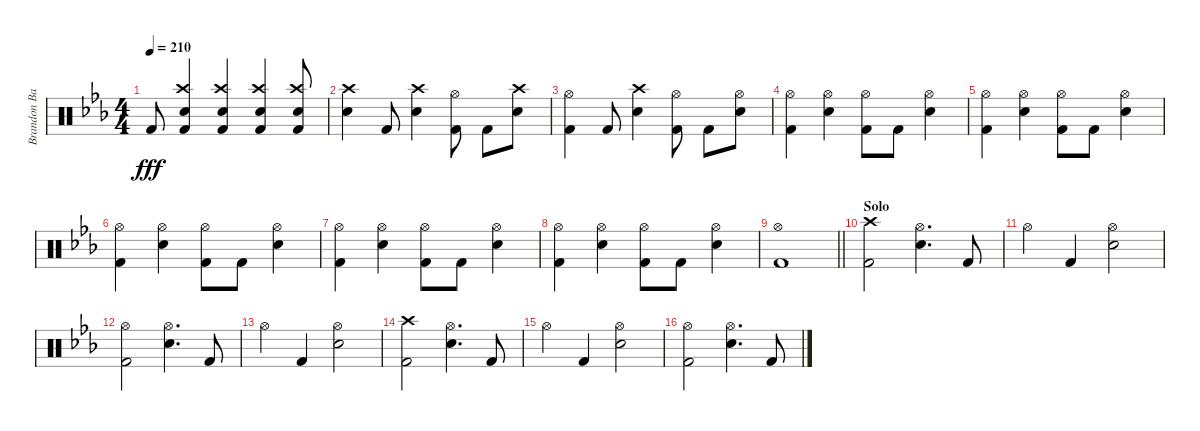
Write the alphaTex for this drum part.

\track ("Brandon Barnes" "Brandon Ba") {instrument percussion}
\staff {score}
\articulation defaults
\ts (4 4)
\tempo 210
\clef neutral
\ks eb "Kick (hit) 2".8{dy fff}
("Crash high (hit)" "Kick (hit) 2" "Snare (hit) 2").4 ("Crash high (hit)" "Kick (hit) 2" "Snare (hit) 2").4 ("Crash high (hit)" "Kick (hit) 2" "Snare (hit) 2").4 ("Crash high (hit)" "Kick (hit) 2" "Snare (hit) 2").8 |
("Crash high (hit)" "Snare (hit) 2").4 "Kick (hit) 2".8 ("Crash high (hit)" "Snare (hit) 2").4 ("Hi-Hat (open)" "Kick (hit) 2").8 "Kick (hit) 2".8 ("Crash high (hit)" "Snare (hit) 2").8 |
("Hi-Hat (open)" "Kick (hit) 2").4 "Kick (hit) 2".8 ("Crash high (hit)" "Snare (hit) 2").4 ("Hi-Hat (open)" "Kick (hit) 2").8 "Kick (hit) 2".8 ("Hi-Hat (open)" "Snare (hit) 2").8 |
("Hi-Hat (open)" "Kick (hit) 2").4 ("Hi-Hat (open)" "Snare (hit) 2").4 ("Hi-Hat (open)" "Kick (hit) 2").8 "Kick (hit) 2".8 ("Hi-Hat (open)" "Snare (hit) 2").4 |
("Hi-Hat (open)" "Kick (hit) 2").4 ("Hi-Hat (open)" "Snare (hit) 2").4 ("Hi-Hat (open)" "Kick (hit) 2").8 "Kick (hit) 2".8 ("Hi-Hat (open)" "Snare (hit) 2").4 |
("Hi-Hat (open)" "Kick (hit) 2").4 ("Hi-Hat (open)" "Snare (hit) 2").4 ("Hi-Hat (open)" "Kick (hit) 2").8 "Kick (hit) 2".8 ("Hi-Hat (open)" "Snare (hit) 2").4 |
("Hi-Hat (open)" "Kick (hit) 2").4 ("Hi-Hat (open)" "Snare (hit) 2").4 ("Hi-Hat (open)" "Kick (hit) 2").8 "Kick (hit) 2".8 ("Hi-Hat (open)" "Snare (hit) 2").4 |
("Hi-Hat (open)" "Kick (hit) 2").4 ("Hi-Hat (open)" "Snare (hit) 2").4 ("Hi-Hat (open)" "Kick (hit) 2").8 "Kick (hit) 2".8 ("Hi-Hat (open)" "Snare (hit) 2").4 |
\barLineRight lightlight
("Hi-Hat (open)" "Kick (hit) 2").1 |
\section ("" "Solo")
("Crash high (hit)" "Kick (hit) 2").2 ("Hi-Hat (open)" "Snare (hit) 2").4{d} "Kick (hit) 2".8 |
"Hi-Hat (open)".4 "Kick (hit) 2".4 ("Hi-Hat (open)" "Snare (hit) 2").2 |
("Hi-Hat (open)" "Kick (hit) 2").2 ("Hi-Hat (open)" "Snare (hit) 2").4{d} "Kick (hit) 2".8 |
"Hi-Hat (open)".4 "Kick (hit) 2".4 ("Hi-Hat (open)" "Snare (hit) 2").2 |
("Crash high (hit)" "Kick (hit) 2").2 ("Hi-Hat (open)" "Snare (hit) 2").4{d} "Kick (hit) 2".8 |
"Hi-Hat (open)".4 "Kick (hit) 2".4 ("Hi-Hat (open)" "Snare (hit) 2").2 |
("Hi-Hat (open)" "Kick (hit) 2").2 ("Hi-Hat (open)" "Snare (hit) 2").4{d} "Kick (hit) 2".8
